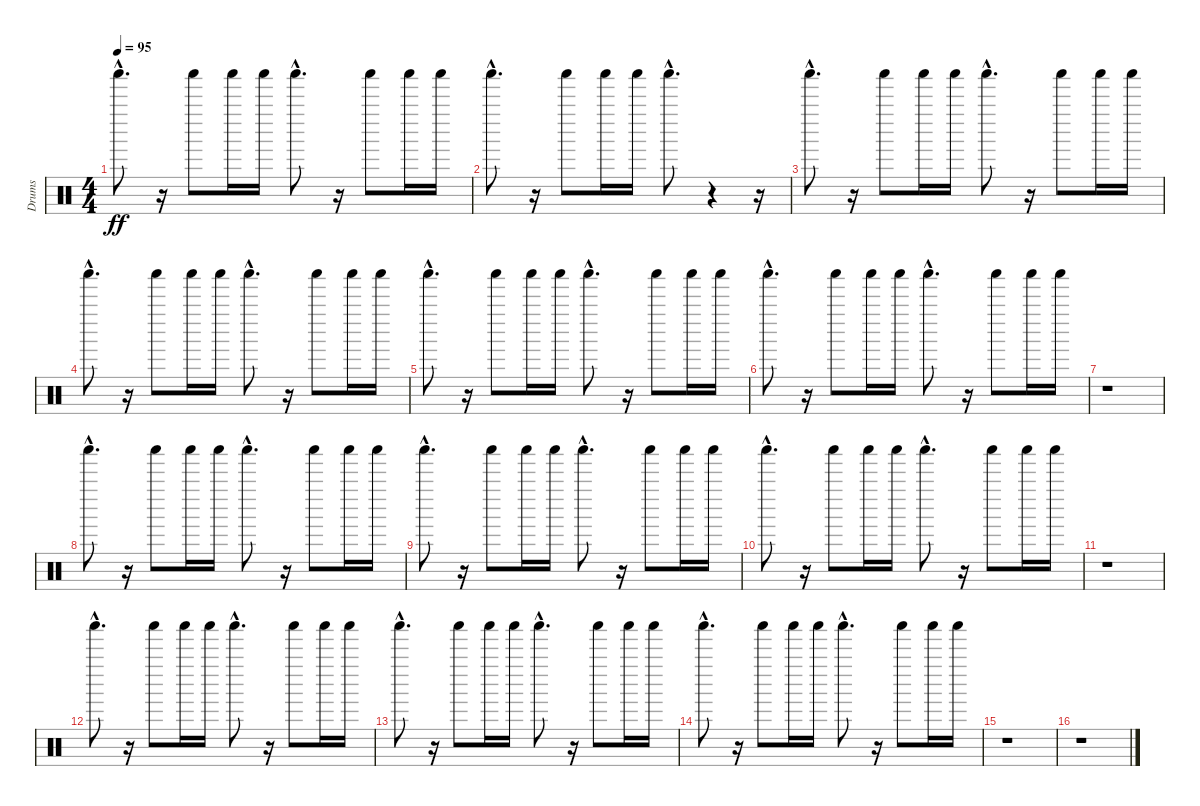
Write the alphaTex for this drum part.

\track ("Drums" "Drums") {instrument percussion}
\staff {score}
\articulation defaults
\ts (4 4)
\tempo 95
\clef neutral
\ks c "Shaker (hit)"{hac}.8{d dy ff}
r.16 "Shaker (hit)".8 "Shaker (hit)".16 "Shaker (hit)".16 "Shaker (hit)"{hac}.8{d} r.16 "Shaker (hit)".8 "Shaker (hit)".16 "Shaker (hit)".16 |
"Shaker (hit)"{hac}.8{d} r.16 "Shaker (hit)".8 "Shaker (hit)".16 "Shaker (hit)".16 "Shaker (hit)"{hac}.8{d} r.4 r.16 |
"Shaker (hit)"{hac}.8{d} r.16 "Shaker (hit)".8 "Shaker (hit)".16 "Shaker (hit)".16 "Shaker (hit)"{hac}.8{d} r.16 "Shaker (hit)".8 "Shaker (hit)".16 "Shaker (hit)".16 |
"Shaker (hit)"{hac}.8{d} r.16 "Shaker (hit)".8 "Shaker (hit)".16 "Shaker (hit)".16 "Shaker (hit)"{hac}.8{d} r.16 "Shaker (hit)".8 "Shaker (hit)".16 "Shaker (hit)".16 |
"Shaker (hit)"{hac}.8{d} r.16 "Shaker (hit)".8 "Shaker (hit)".16 "Shaker (hit)".16 "Shaker (hit)"{hac}.8{d} r.16 "Shaker (hit)".8 "Shaker (hit)".16 "Shaker (hit)".16 |
"Shaker (hit)"{hac}.8{d} r.16 "Shaker (hit)".8 "Shaker (hit)".16 "Shaker (hit)".16 "Shaker (hit)"{hac}.8{d} r.16 "Shaker (hit)".8 "Shaker (hit)".16 "Shaker (hit)".16 |
r.1 |
"Shaker (hit)"{hac}.8{d} r.16 "Shaker (hit)".8 "Shaker (hit)".16 "Shaker (hit)".16 "Shaker (hit)"{hac}.8{d} r.16 "Shaker (hit)".8 "Shaker (hit)".16 "Shaker (hit)".16 |
"Shaker (hit)"{hac}.8{d} r.16 "Shaker (hit)".8 "Shaker (hit)".16 "Shaker (hit)".16 "Shaker (hit)"{hac}.8{d} r.16 "Shaker (hit)".8 "Shaker (hit)".16 "Shaker (hit)".16 |
"Shaker (hit)"{hac}.8{d} r.16 "Shaker (hit)".8 "Shaker (hit)".16 "Shaker (hit)".16 "Shaker (hit)"{hac}.8{d} r.16 "Shaker (hit)".8 "Shaker (hit)".16 "Shaker (hit)".16 |
r.1 |
"Shaker (hit)"{hac}.8{d} r.16 "Shaker (hit)".8 "Shaker (hit)".16 "Shaker (hit)".16 "Shaker (hit)"{hac}.8{d} r.16 "Shaker (hit)".8 "Shaker (hit)".16 "Shaker (hit)".16 |
"Shaker (hit)"{hac}.8{d} r.16 "Shaker (hit)".8 "Shaker (hit)".16 "Shaker (hit)".16 "Shaker (hit)"{hac}.8{d} r.16 "Shaker (hit)".8 "Shaker (hit)".16 "Shaker (hit)".16 |
"Shaker (hit)"{hac}.8{d} r.16 "Shaker (hit)".8 "Shaker (hit)".16 "Shaker (hit)".16 "Shaker (hit)"{hac}.8{d} r.16 "Shaker (hit)".8 "Shaker (hit)".16 "Shaker (hit)".16 |
r.1 |
r.1
